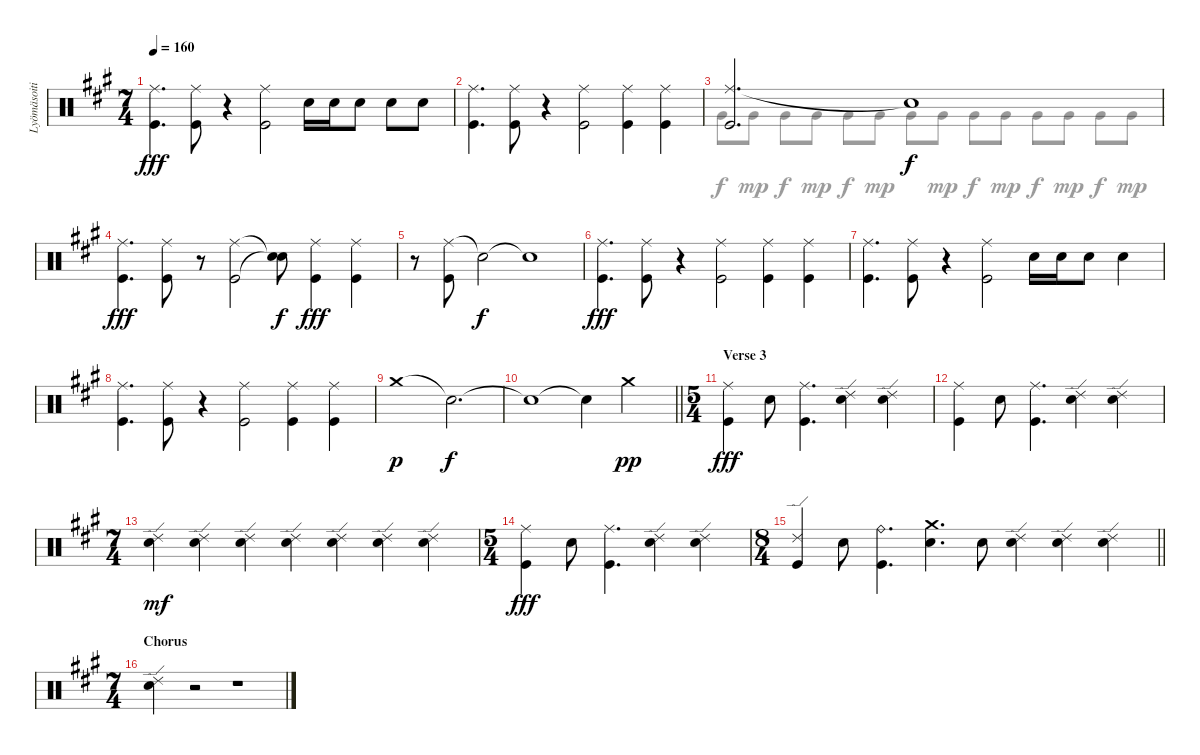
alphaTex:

\track ("Lyömäsoitin" "Lyömäsoiti") {instrument percussion}
\staff {score}
\articulation defaults
\voice
\ts (7 4)
\tempo 160
\clef neutral
\ks a
("Ride (middle)" "Kick (hit)").4{d dy fff} ("Ride (middle)" "Kick (hit)").8 r.4 ("Ride (middle)" "Kick (hit)").2 "Snare (hit) 2".16 "Snare (hit) 2".16 "Snare (hit) 2".8 "Snare (hit) 2".8 "Snare (hit) 2".8 |
("Ride (middle)" "Kick (hit)").4{d} ("Ride (middle)" "Kick (hit)").8 r.4 ("Ride (middle)" "Kick (hit)").2 ("Ride (middle)" "Kick (hit)").4 ("Ride (middle)" "Kick (hit)").4 |
("Ride (middle)" "Kick (hit)").2{d} "Snare (hit)"{t}.1{dy f} |
("Ride (middle)" "Kick (hit)").4{d dy fff} ("Ride (middle)" "Kick (hit)").8 r.8 ("Ride (middle)" "Kick (hit)").2 ("Snare (hit)"{t} "Snare (hit)"{t}).8{dy f} ("Ride (middle)" "Kick (hit)").4{dy fff} ("Ride (middle)" "Kick (hit)").4 |
r.8 ("Ride (middle)" "Kick (hit)").8 "Snare (hit)"{t}.2{dy f} "Snare (hit)"{t}.1 |
("Ride (middle)" "Kick (hit)").4{d dy fff} ("Ride (middle)" "Kick (hit)").8 r.4 ("Ride (middle)" "Kick (hit)").2 ("Ride (middle)" "Kick (hit)").4 ("Ride (middle)" "Kick (hit)").4 |
("Ride (middle)" "Kick (hit)").4{d} ("Ride (middle)" "Kick (hit)").8 r.4 ("Ride (middle)" "Kick (hit)").2 "Snare (hit) 2".16 "Snare (hit) 2".16 "Snare (hit) 2".8 "Snare (hit) 2".4 |
("Ride (middle)" "Kick (hit)").4{d} ("Ride (middle)" "Kick (hit)").8 r.4 ("Ride (middle)" "Kick (hit)").2 ("Ride (middle)" "Kick (hit)").4 ("Ride (middle)" "Kick (hit)").4 |
"Crash medium (hit)".1{dy p} "Snare (hit)"{t}.2{d dy f} |
\barLineRight lightlight "Snare (hit)"{t}.1 "Snare (hit)"{t}.4 "Crash medium (hit)".2{dy pp}
|
\ts (5 4)
\section ("" "Verse 3")
("Ride (middle)" "Kick (hit)").4{dy fff} "Snare (hit) 2".8 ("Ride (middle)" "Kick (hit)").4{d} ("Ride (edge) 2" "Snare (hit) 2").4 ("Ride (edge) 2" "Snare (hit) 2").4 |
("Ride (middle)" "Kick (hit)").4 "Snare (hit) 2".8 ("Ride (middle)" "Kick (hit)").4{d} ("Ride (edge) 2" "Snare (hit) 2").4 ("Ride (edge) 2" "Snare (hit) 2").4 |
\ts (7 4)
("Ride (edge) 2" "Snare (hit) 2").4{dy mf} ("Ride (edge) 2" "Snare (hit) 2").4 ("Ride (edge) 2" "Snare (hit) 2").4 ("Ride (edge) 2" "Snare (hit) 2").4 ("Ride (edge) 2" "Snare (hit) 2").4 ("Ride (edge) 2" "Snare (hit) 2").4 ("Ride (edge) 2" "Snare (hit) 2").4 |
\ts (5 4)
("Ride (middle)" "Kick (hit)").4{dy fff} "Snare (hit) 2".8 ("Ride (middle)" "Kick (hit)").4{d} ("Ride (edge) 2" "Snare (hit) 2").4 ("Ride (edge) 2" "Snare (hit) 2").4 |
\ts (8 4)
\barLineRight lightlight
("Ride (edge) 2" "Kick (hit)").4 "Snare (hit) 2".8 ("Ride (bell)" "Kick (hit)").4{d} ("Crash medium (hit)" "Snare (hit) 2").4{d} "Snare (hit) 2".8 ("Ride (edge) 2" "Snare (hit) 2").4 ("Ride (edge) 2" "Snare (hit) 2").4 ("Ride (edge) 2" "Snare (hit) 2").4 |
\ts (7 4)
\section ("" "Chorus")
("Ride (edge) 2" "Snare (hit) 2").4 r.2 r.1
\voice
\clef neutral
\ottava regular
\simile none
\ks a
|
|
"Very Low Tom (hit)".8{dy f} "Very Low Tom (hit)".8{dy mp} "Very Low Tom (hit)".8{dy f} "Very Low Tom (hit)".8{dy mp} "Very Low Tom (hit)".8{dy f} "Very Low Tom (hit)".8{dy mp} "Very Low Tom (hit)".8{dy f} "Very Low Tom (hit)".8{dy mp} "Very Low Tom (hit)".8{dy f} "Very Low Tom (hit)".8{dy mp} "Very Low Tom (hit)".8{dy f} "Very Low Tom (hit)".8{dy mp} "Very Low Tom (hit)".8{dy f} "Very Low Tom (hit)".8{dy mp} |
|
|
|
|
|
|
\barLineRight lightlight
|
|
|
|
|
\barLineRight lightlight
|
